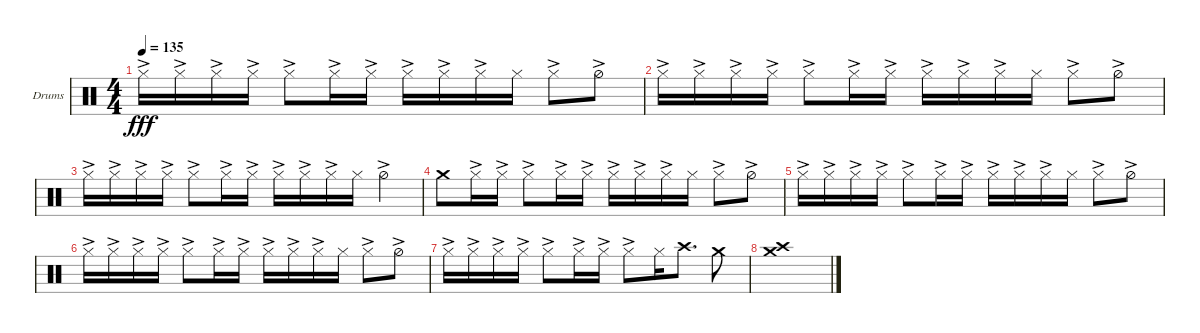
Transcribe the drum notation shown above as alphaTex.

\defaultSystemsLayout 4
\bracketExtendMode groupsimilarinstruments
\firstSystemTrackNameOrientation horizontal
\otherSystemsTrackNameOrientation horizontal
\track ("Helders" "Drums") {instrument percussion}
\staff {score}
\articulation defaults
\ts (4 4)
\tempo 135
\clef neutral
\ks c "Hi-Hat (closed)"{ac}.16{dy fff} "Hi-Hat (closed)"{ac}.16 "Hi-Hat (closed)"{ac}.16 "Hi-Hat (closed)"{ac}.16 "Hi-Hat (closed)"{ac}.8 "Hi-Hat (closed)"{ac}.16 "Hi-Hat (closed)"{ac}.16 "Hi-Hat (closed)"{ac}.16 "Hi-Hat (closed)"{ac}.16 "Hi-Hat (closed)"{ac}.16 "Hi-Hat (closed)".16 "Hi-Hat (closed)"{ac}.8 "Hi-Hat (half)"{ac}.8
|
"Hi-Hat (closed)"{ac}.16 "Hi-Hat (closed)"{ac}.16 "Hi-Hat (closed)"{ac}.16 "Hi-Hat (closed)"{ac}.16 "Hi-Hat (closed)"{ac}.8 "Hi-Hat (closed)"{ac}.16 "Hi-Hat (closed)"{ac}.16 "Hi-Hat (closed)"{ac}.16 "Hi-Hat (closed)"{ac}.16 "Hi-Hat (closed)"{ac}.16 "Hi-Hat (closed)".16 "Hi-Hat (closed)"{ac}.8 "Hi-Hat (half)"{ac}.8 |
"Hi-Hat (closed)"{ac}.16 "Hi-Hat (closed)"{ac}.16 "Hi-Hat (closed)"{ac}.16 "Hi-Hat (closed)"{ac}.16 "Hi-Hat (closed)"{ac}.8 "Hi-Hat (closed)"{ac}.16 "Hi-Hat (closed)"{ac}.16 "Hi-Hat (closed)"{ac}.16 "Hi-Hat (closed)"{ac}.16 "Hi-Hat (closed)"{ac}.16 "Hi-Hat (closed)".16 "Hi-Hat (half)"{ac}.4 |
"Crash medium (hit)".8 "Hi-Hat (closed)"{ac}.16 "Hi-Hat (closed)"{ac}.16 "Hi-Hat (closed)"{ac}.8 "Hi-Hat (closed)"{ac}.16 "Hi-Hat (closed)"{ac}.16 "Hi-Hat (closed)"{ac}.16 "Hi-Hat (closed)"{ac}.16 "Hi-Hat (closed)"{ac}.16 "Hi-Hat (closed)".16 "Hi-Hat (closed)"{ac}.8 "Hi-Hat (half)"{ac}.8 |
"Hi-Hat (closed)"{ac}.16 "Hi-Hat (closed)"{ac}.16 "Hi-Hat (closed)"{ac}.16 "Hi-Hat (closed)"{ac}.16 "Hi-Hat (closed)"{ac}.8 "Hi-Hat (closed)"{ac}.16 "Hi-Hat (closed)"{ac}.16 "Hi-Hat (closed)"{ac}.16 "Hi-Hat (closed)"{ac}.16 "Hi-Hat (closed)"{ac}.16 "Hi-Hat (closed)".16 "Hi-Hat (closed)"{ac}.8 "Hi-Hat (half)"{ac}.8 |
"Hi-Hat (closed)"{ac}.16 "Hi-Hat (closed)"{ac}.16 "Hi-Hat (closed)"{ac}.16 "Hi-Hat (closed)"{ac}.16 "Hi-Hat (closed)"{ac}.8 "Hi-Hat (closed)"{ac}.16 "Hi-Hat (closed)"{ac}.16 "Hi-Hat (closed)"{ac}.16 "Hi-Hat (closed)"{ac}.16 "Hi-Hat (closed)"{ac}.16 "Hi-Hat (closed)".16 "Hi-Hat (closed)"{ac}.8 "Hi-Hat (half)"{ac}.8 |
"Hi-Hat (closed)"{ac}.16 "Hi-Hat (closed)"{ac}.16 "Hi-Hat (closed)"{ac}.16 "Hi-Hat (closed)"{ac}.16 "Hi-Hat (closed)"{ac}.8 "Hi-Hat (closed)"{ac}.16 "Hi-Hat (closed)"{ac}.16 "Hi-Hat (closed)"{ac}.8 "Hi-Hat (closed)".16 "Crash high (hit)".8{d} "Crash medium (hit)".8 |
("Crash medium (hit)" "Crash high (hit)").1
